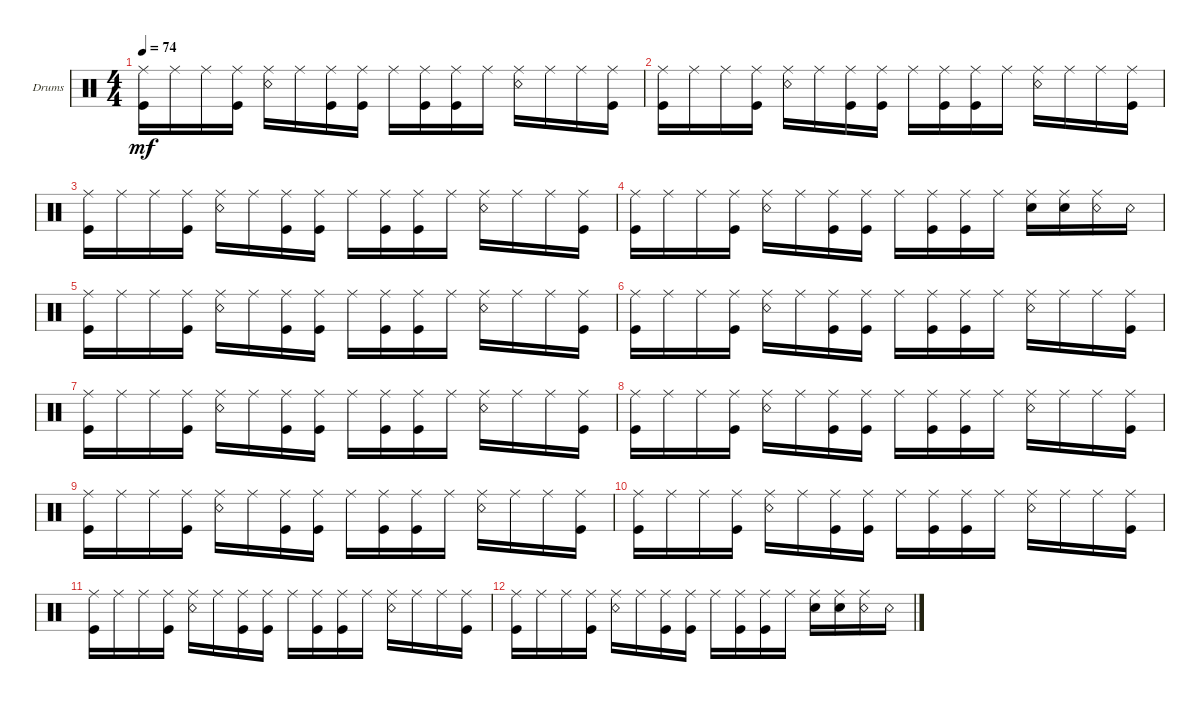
\defaultSystemsLayout 4
\bracketExtendMode groupsimilarinstruments
\firstSystemTrackNameOrientation horizontal
\otherSystemsTrackNameOrientation horizontal
\track ("Drum" "Drums") {multiBarRest instrument percussion}
\staff {score}
\articulation defaults
\ts (4 4)
\tempo 74
\clef neutral
\ks c
("Ride (middle)" "Kick (hit)").16{dy mf} "Ride (middle)".16 "Ride (middle)".16 ("Ride (middle)" "Kick (hit)").16 ("Ride (middle)" "Snare (rim shot)").16 "Ride (middle)".16 ("Ride (middle)" "Kick (hit)").16 ("Ride (middle)" "Kick (hit)").16 "Ride (middle)".16 ("Ride (middle)" "Kick (hit)").16 ("Ride (middle)" "Kick (hit)").16 "Ride (middle)".16 ("Ride (middle)" "Snare (rim shot)").16 "Ride (middle)".16 "Ride (middle)".16 ("Ride (middle)" "Kick (hit)").16 |
("Ride (middle)" "Kick (hit)").16 "Ride (middle)".16 "Ride (middle)".16 ("Ride (middle)" "Kick (hit)").16 ("Ride (middle)" "Snare (rim shot)").16 "Ride (middle)".16 ("Ride (middle)" "Kick (hit)").16 ("Ride (middle)" "Kick (hit)").16 "Ride (middle)".16 ("Ride (middle)" "Kick (hit)").16 ("Ride (middle)" "Kick (hit)").16 "Ride (middle)".16 ("Ride (middle)" "Snare (rim shot)").16 "Ride (middle)".16 "Ride (middle)".16 ("Ride (middle)" "Kick (hit)").16 |
("Ride (middle)" "Kick (hit)").16 "Ride (middle)".16 "Ride (middle)".16 ("Ride (middle)" "Kick (hit)").16 ("Ride (middle)" "Snare (rim shot)").16 "Ride (middle)".16 ("Ride (middle)" "Kick (hit)").16 ("Ride (middle)" "Kick (hit)").16 "Ride (middle)".16 ("Ride (middle)" "Kick (hit)").16 ("Ride (middle)" "Kick (hit)").16 "Ride (middle)".16 ("Ride (middle)" "Snare (rim shot)").16 "Ride (middle)".16 "Ride (middle)".16 ("Ride (middle)" "Kick (hit)").16 |
("Ride (middle)" "Kick (hit)").16 "Ride (middle)".16 "Ride (middle)".16 ("Ride (middle)" "Kick (hit)").16 ("Ride (middle)" "Snare (rim shot)").16 "Ride (middle)".16 ("Ride (middle)" "Kick (hit)").16 ("Ride (middle)" "Kick (hit)").16 "Ride (middle)".16 ("Ride (middle)" "Kick (hit)").16 ("Ride (middle)" "Kick (hit)").16 "Ride (middle)".16 ("Snare (hit) 2" "Ride (middle)").16 ("Snare (hit) 2" "Ride (middle)").16 ("Ride (middle)" "Snare (rim shot)").16 "Snare (rim shot)".16 |
("Ride (middle)" "Kick (hit)").16 "Ride (middle)".16 "Ride (middle)".16 ("Ride (middle)" "Kick (hit)").16 ("Ride (middle)" "Snare (rim shot)").16 "Ride (middle)".16 ("Ride (middle)" "Kick (hit)").16 ("Ride (middle)" "Kick (hit)").16 "Ride (middle)".16 ("Ride (middle)" "Kick (hit)").16 ("Ride (middle)" "Kick (hit)").16 "Ride (middle)".16 ("Ride (middle)" "Snare (rim shot)").16 "Ride (middle)".16 "Ride (middle)".16 ("Ride (middle)" "Kick (hit)").16 |
("Ride (middle)" "Kick (hit)").16 "Ride (middle)".16 "Ride (middle)".16 ("Ride (middle)" "Kick (hit)").16 ("Ride (middle)" "Snare (rim shot)").16 "Ride (middle)".16 ("Ride (middle)" "Kick (hit)").16 ("Ride (middle)" "Kick (hit)").16 "Ride (middle)".16 ("Ride (middle)" "Kick (hit)").16 ("Ride (middle)" "Kick (hit)").16 "Ride (middle)".16 ("Ride (middle)" "Snare (rim shot)").16 "Ride (middle)".16 "Ride (middle)".16 ("Ride (middle)" "Kick (hit)").16 |
("Ride (middle)" "Kick (hit)").16 "Ride (middle)".16 "Ride (middle)".16 ("Ride (middle)" "Kick (hit)").16 ("Ride (middle)" "Snare (rim shot)").16 "Ride (middle)".16 ("Ride (middle)" "Kick (hit)").16 ("Ride (middle)" "Kick (hit)").16 "Ride (middle)".16 ("Ride (middle)" "Kick (hit)").16 ("Ride (middle)" "Kick (hit)").16 "Ride (middle)".16 ("Ride (middle)" "Snare (rim shot)").16 "Ride (middle)".16 "Ride (middle)".16 ("Ride (middle)" "Kick (hit)").16 |
("Ride (middle)" "Kick (hit)").16 "Ride (middle)".16 "Ride (middle)".16 ("Ride (middle)" "Kick (hit)").16 ("Ride (middle)" "Snare (rim shot)").16 "Ride (middle)".16 ("Ride (middle)" "Kick (hit)").16 ("Ride (middle)" "Kick (hit)").16 "Ride (middle)".16 ("Ride (middle)" "Kick (hit)").16 ("Ride (middle)" "Kick (hit)").16 "Ride (middle)".16 ("Ride (middle)" "Snare (rim shot)").16 "Ride (middle)".16 "Ride (middle)".16 ("Ride (middle)" "Kick (hit)").16 |
("Ride (middle)" "Kick (hit)").16 "Ride (middle)".16 "Ride (middle)".16 ("Ride (middle)" "Kick (hit)").16 ("Ride (middle)" "Snare (rim shot)").16 "Ride (middle)".16 ("Ride (middle)" "Kick (hit)").16 ("Ride (middle)" "Kick (hit)").16 "Ride (middle)".16 ("Ride (middle)" "Kick (hit)").16 ("Ride (middle)" "Kick (hit)").16 "Ride (middle)".16 ("Ride (middle)" "Snare (rim shot)").16 "Ride (middle)".16 "Ride (middle)".16 ("Ride (middle)" "Kick (hit)").16 |
("Ride (middle)" "Kick (hit)").16 "Ride (middle)".16 "Ride (middle)".16 ("Ride (middle)" "Kick (hit)").16 ("Ride (middle)" "Snare (rim shot)").16 "Ride (middle)".16 ("Ride (middle)" "Kick (hit)").16 ("Ride (middle)" "Kick (hit)").16 "Ride (middle)".16 ("Ride (middle)" "Kick (hit)").16 ("Ride (middle)" "Kick (hit)").16 "Ride (middle)".16 ("Ride (middle)" "Snare (rim shot)").16 "Ride (middle)".16 "Ride (middle)".16 ("Ride (middle)" "Kick (hit)").16 |
("Ride (middle)" "Kick (hit)").16 "Ride (middle)".16 "Ride (middle)".16 ("Ride (middle)" "Kick (hit)").16 ("Ride (middle)" "Snare (rim shot)").16 "Ride (middle)".16 ("Ride (middle)" "Kick (hit)").16 ("Ride (middle)" "Kick (hit)").16 "Ride (middle)".16 ("Ride (middle)" "Kick (hit)").16 ("Ride (middle)" "Kick (hit)").16 "Ride (middle)".16 ("Ride (middle)" "Snare (rim shot)").16 "Ride (middle)".16 "Ride (middle)".16 ("Ride (middle)" "Kick (hit)").16 |
("Ride (middle)" "Kick (hit)").16 "Ride (middle)".16 "Ride (middle)".16 ("Ride (middle)" "Kick (hit)").16 ("Ride (middle)" "Snare (rim shot)").16 "Ride (middle)".16 ("Ride (middle)" "Kick (hit)").16 ("Ride (middle)" "Kick (hit)").16 "Ride (middle)".16 ("Ride (middle)" "Kick (hit)").16 ("Ride (middle)" "Kick (hit)").16 "Ride (middle)".16 ("Snare (hit) 2" "Ride (middle)").16 ("Snare (hit) 2" "Ride (middle)").16 ("Ride (middle)" "Snare (rim shot)").16 "Snare (rim shot)".16
